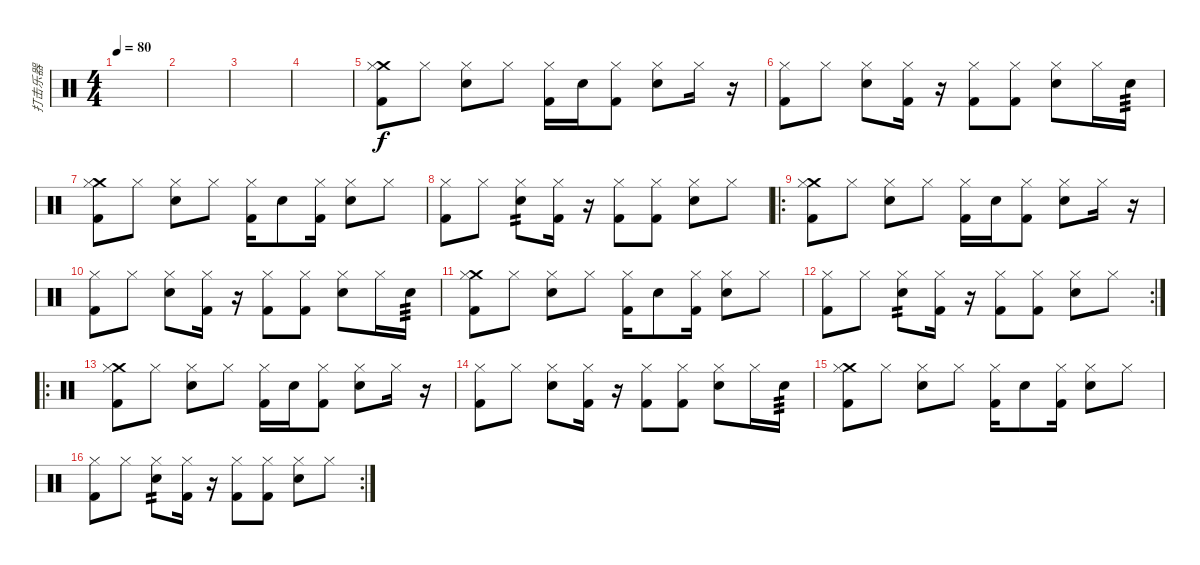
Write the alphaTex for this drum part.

\track ("打击乐器" "打击乐器") {instrument percussion}
\staff {score}
\articulation defaults
\ts (4 4)
\tempo 80
\clef neutral
\ks c
|
|
|
|
("Crash medium (hit)" "Hi-Hat (closed)" "Kick (hit) 2").8 "Hi-Hat (closed)".8 ("Hi-Hat (closed)" "Electric Snare (hit)").8 "Hi-Hat (closed)".8 ("Hi-Hat (closed)" "Kick (hit) 2").16 "Electric Snare (hit)".16 ("Hi-Hat (closed)" "Kick (hit) 2").8 ("Hi-Hat (closed)" "Electric Snare (hit)").8 "Hi-Hat (closed)".16 r.16 |
("Hi-Hat (closed)" "Kick (hit) 2").8 "Hi-Hat (closed)".8 ("Hi-Hat (closed)" "Electric Snare (hit)").8 ("Hi-Hat (closed)" "Kick (hit) 2").16 r.16 ("Hi-Hat (closed)" "Kick (hit) 2").8 ("Hi-Hat (closed)" "Kick (hit) 2").8 ("Hi-Hat (closed)" "Electric Snare (hit)").8 "Hi-Hat (closed)".16 "Electric Snare (hit)".16{tp 3} |
("Crash medium (hit)" "Hi-Hat (closed)" "Kick (hit) 2").8 "Hi-Hat (closed)".8 ("Hi-Hat (closed)" "Electric Snare (hit)").8 "Hi-Hat (closed)".8 ("Hi-Hat (closed)" "Kick (hit) 2").16 "Electric Snare (hit)".8 ("Hi-Hat (closed)" "Kick (hit) 2").16 ("Hi-Hat (closed)" "Electric Snare (hit)").8 "Hi-Hat (closed)".8 |
("Hi-Hat (closed)" "Kick (hit) 2").8 "Hi-Hat (closed)".8 ("Hi-Hat (closed)" "Electric Snare (hit)").8{tp 2} ("Hi-Hat (closed)" "Kick (hit) 2").16 r.16 ("Hi-Hat (closed)" "Kick (hit) 2").8 ("Hi-Hat (closed)" "Kick (hit) 2").8 ("Hi-Hat (closed)" "Electric Snare (hit)").8 "Hi-Hat (closed)".8 |
\ro
("Crash medium (hit)" "Hi-Hat (closed)" "Kick (hit) 2").8 "Hi-Hat (closed)".8 ("Hi-Hat (closed)" "Electric Snare (hit)").8 "Hi-Hat (closed)".8 ("Hi-Hat (closed)" "Kick (hit) 2").16 "Electric Snare (hit)".16 ("Hi-Hat (closed)" "Kick (hit) 2").8 ("Hi-Hat (closed)" "Electric Snare (hit)").8 "Hi-Hat (closed)".16 r.16 |
("Hi-Hat (closed)" "Kick (hit) 2").8 "Hi-Hat (closed)".8 ("Hi-Hat (closed)" "Electric Snare (hit)").8 ("Hi-Hat (closed)" "Kick (hit) 2").16 r.16 ("Hi-Hat (closed)" "Kick (hit) 2").8 ("Hi-Hat (closed)" "Kick (hit) 2").8 ("Hi-Hat (closed)" "Electric Snare (hit)").8 "Hi-Hat (closed)".16 "Electric Snare (hit)".16{tp 3} |
("Crash medium (hit)" "Hi-Hat (closed)" "Kick (hit) 2").8 "Hi-Hat (closed)".8 ("Hi-Hat (closed)" "Electric Snare (hit)").8 "Hi-Hat (closed)".8 ("Hi-Hat (closed)" "Kick (hit) 2").16 "Electric Snare (hit)".8 ("Hi-Hat (closed)" "Kick (hit) 2").16 ("Hi-Hat (closed)" "Electric Snare (hit)").8 "Hi-Hat (closed)".8 |
\rc 2
("Hi-Hat (closed)" "Kick (hit) 2").8 "Hi-Hat (closed)".8 ("Hi-Hat (closed)" "Electric Snare (hit)").8{tp 2} ("Hi-Hat (closed)" "Kick (hit) 2").16 r.16 ("Hi-Hat (closed)" "Kick (hit) 2").8 ("Hi-Hat (closed)" "Kick (hit) 2").8 ("Hi-Hat (closed)" "Electric Snare (hit)").8 "Hi-Hat (closed)".8 |
\ro
("Crash medium (hit)" "Hi-Hat (closed)" "Kick (hit) 2").8 "Hi-Hat (closed)".8 ("Hi-Hat (closed)" "Electric Snare (hit)").8 "Hi-Hat (closed)".8 ("Hi-Hat (closed)" "Kick (hit) 2").16 "Electric Snare (hit)".16 ("Hi-Hat (closed)" "Kick (hit) 2").8 ("Hi-Hat (closed)" "Electric Snare (hit)").8 "Hi-Hat (closed)".16 r.16 |
("Hi-Hat (closed)" "Kick (hit) 2").8 "Hi-Hat (closed)".8 ("Hi-Hat (closed)" "Electric Snare (hit)").8 ("Hi-Hat (closed)" "Kick (hit) 2").16 r.16 ("Hi-Hat (closed)" "Kick (hit) 2").8 ("Hi-Hat (closed)" "Kick (hit) 2").8 ("Hi-Hat (closed)" "Electric Snare (hit)").8 "Hi-Hat (closed)".16 "Electric Snare (hit)".16{tp 3} |
("Crash medium (hit)" "Hi-Hat (closed)" "Kick (hit) 2").8 "Hi-Hat (closed)".8 ("Hi-Hat (closed)" "Electric Snare (hit)").8 "Hi-Hat (closed)".8 ("Hi-Hat (closed)" "Kick (hit) 2").16 "Electric Snare (hit)".8 ("Hi-Hat (closed)" "Kick (hit) 2").16 ("Hi-Hat (closed)" "Electric Snare (hit)").8 "Hi-Hat (closed)".8 |
\rc 2
("Hi-Hat (closed)" "Kick (hit) 2").8 "Hi-Hat (closed)".8 ("Hi-Hat (closed)" "Electric Snare (hit)").8{tp 2} ("Hi-Hat (closed)" "Kick (hit) 2").16 r.16 ("Hi-Hat (closed)" "Kick (hit) 2").8 ("Hi-Hat (closed)" "Kick (hit) 2").8 ("Hi-Hat (closed)" "Electric Snare (hit)").8 "Hi-Hat (closed)".8
